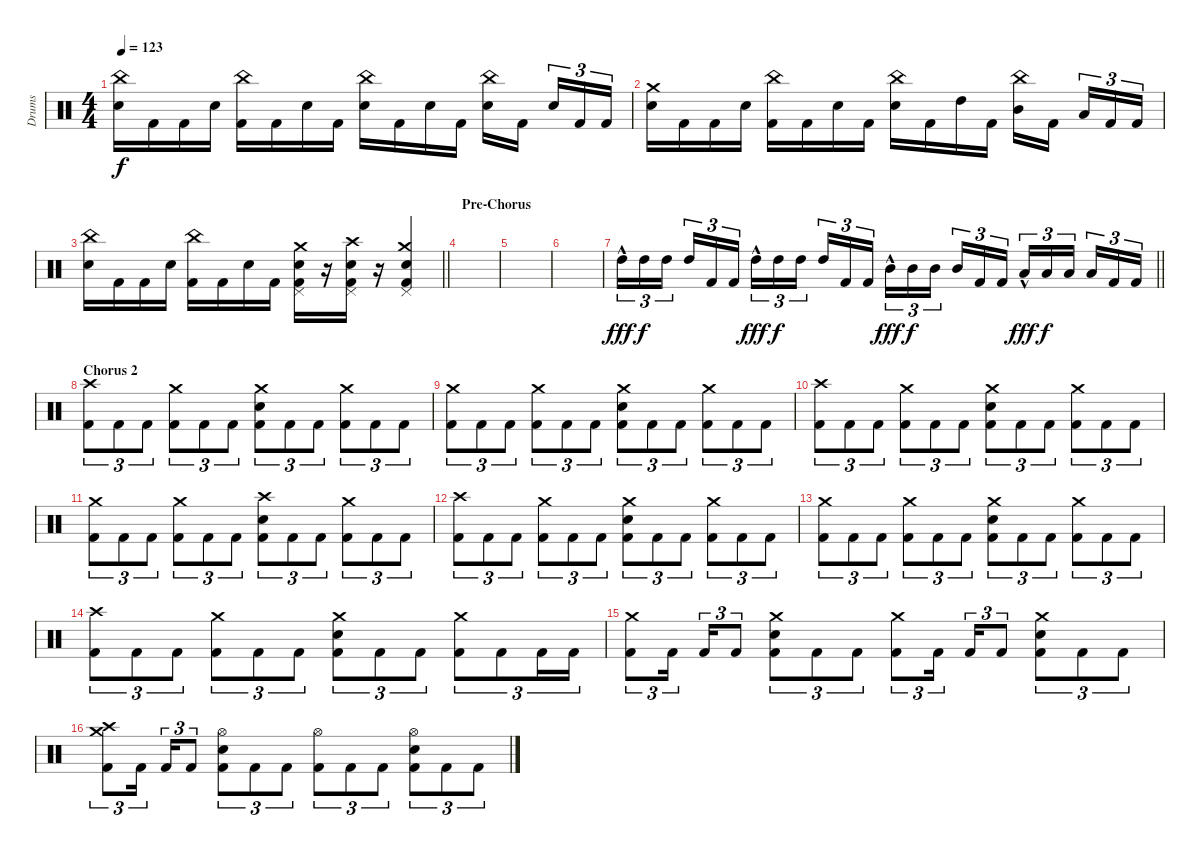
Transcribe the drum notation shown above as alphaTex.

\track ("Drums" "Drums") {instrument percussion}
\staff {score}
\articulation defaults
\ts (4 4)
\tempo 123
\clef neutral
\ks c
("China (hit)" "Snare (hit) 2").16{dy f} "Kick (hit) 2".16 "Kick (hit) 2".16 "Snare (hit) 2".16 ("China (hit)" "Kick (hit) 2").16 "Kick (hit) 2".16 "Snare (hit) 2".16 "Kick (hit) 2".16 ("China (hit)" "Snare (hit) 2").16 "Kick (hit) 2".16 "Snare (hit) 2".16 "Kick (hit) 2".16 ("China (hit)" "Snare (hit) 2").16 "Kick (hit) 2".16{beam splitsecondary} "Snare (hit) 2".16{tu (3 2)} "Kick (hit) 2".16{tu (3 2)} "Kick (hit) 2".16{tu (3 2)} |
("Crash medium (hit)" "Snare (hit) 2").16 "Kick (hit) 2".16 "Kick (hit) 2".16 "Snare (hit) 2".16 ("China (hit)" "Kick (hit) 2").16 "Kick (hit) 2".16 "Snare (hit) 2".16 "Kick (hit) 2".16 ("China (hit)" "Snare (hit) 2").16 "Kick (hit) 2".16 "High Tom (hit)".16 "Kick (hit) 2".16 ("China (hit)" "Mid Tom (hit)").16 "Kick (hit) 2".16{beam splitsecondary} "Low Tom (hit)".16{tu (3 2)} "Kick (hit) 2".16{tu (3 2)} "Kick (hit) 2".16{tu (3 2)} |
\barLineRight lightlight
("China (hit)" "Snare (hit) 2").16 "Kick (hit) 2".16 "Kick (hit) 2".16 "Snare (hit) 2".16 ("China (hit)" "Kick (hit) 2").16 "Kick (hit) 2".16 "Snare (hit) 2".16 "Kick (hit) 2".16 ("Crash medium (hit)" "Pedal Hi-Hat (hit)" "Snare (hit) 2" "Kick (hit) 2").16 r.16 ("Crash high (hit)" "Pedal Hi-Hat (hit)" "Snare (hit) 2" "Kick (hit) 2").16 r.16 ("Crash medium (hit)" "Pedal Hi-Hat (hit)" "Snare (hit) 2" "Kick (hit) 2").4 |
\section ("" "Pre-Chorus")
|
|
|
\barLineRight lightlight "High Tom (hit)"{hac}.16{tu (3 2) dy fff} "High Tom (hit)".16{tu (3 2) dy f} "High Tom (hit)".16{tu (3 2) beam splitsecondary} "High Tom (hit)".16{tu (3 2)} "Kick (hit) 2".16{tu (3 2)} "Kick (hit) 2".16{tu (3 2)} "High Tom (hit)"{hac}.16{tu (3 2) dy fff} "High Tom (hit)".16{tu (3 2) dy f} "High Tom (hit)".16{tu (3 2) beam splitsecondary} "High Tom (hit)".16{tu (3 2)} "Kick (hit) 2".16{tu (3 2)} "Kick (hit) 2".16{tu (3 2)} "Mid Tom (hit)"{hac}.16{tu (3 2) dy fff} "Mid Tom (hit)".16{tu (3 2) dy f} "Mid Tom (hit)".16{tu (3 2) beam splitsecondary} "Mid Tom (hit)".16{tu (3 2)} "Kick (hit) 2".16{tu (3 2)} "Kick (hit) 2".16{tu (3 2)} "Low Tom (hit)"{hac}.16{tu (3 2) dy fff} "Low Tom (hit)".16{tu (3 2) dy f} "Low Tom (hit)".16{tu (3 2) beam splitsecondary} "Low Tom (hit)".16{tu (3 2)} "Kick (hit) 2".16{tu (3 2)} "Kick (hit) 2".16{tu (3 2)}
|
\section ("" "Chorus 2")
("Crash high (hit)" "Kick (hit) 2").8{tu (3 2)} "Kick (hit) 2".8{tu (3 2)} "Kick (hit) 2".8{tu (3 2)} ("Crash medium (hit)" "Kick (hit) 2").8{tu (3 2)} "Kick (hit) 2".8{tu (3 2)} "Kick (hit) 2".8{tu (3 2)} ("Crash medium (hit)" "Snare (hit) 2" "Kick (hit) 2").8{tu (3 2)} "Kick (hit) 2".8{tu (3 2)} "Kick (hit) 2".8{tu (3 2)} ("Crash medium (hit)" "Kick (hit) 2").8{tu (3 2)} "Kick (hit) 2".8{tu (3 2)} "Kick (hit) 2".8{tu (3 2)} |
("Crash medium (hit)" "Kick (hit) 2").8{tu (3 2)} "Kick (hit) 2".8{tu (3 2)} "Kick (hit) 2".8{tu (3 2)} ("Crash medium (hit)" "Kick (hit) 2").8{tu (3 2)} "Kick (hit) 2".8{tu (3 2)} "Kick (hit) 2".8{tu (3 2)} ("Crash medium (hit)" "Snare (hit) 2" "Kick (hit) 2").8{tu (3 2)} "Kick (hit) 2".8{tu (3 2)} "Kick (hit) 2".8{tu (3 2)} ("Crash medium (hit)" "Kick (hit) 2").8{tu (3 2)} "Kick (hit) 2".8{tu (3 2)} "Kick (hit) 2".8{tu (3 2)} |
("Crash high (hit)" "Kick (hit) 2").8{tu (3 2)} "Kick (hit) 2".8{tu (3 2)} "Kick (hit) 2".8{tu (3 2)} ("Crash medium (hit)" "Kick (hit) 2").8{tu (3 2)} "Kick (hit) 2".8{tu (3 2)} "Kick (hit) 2".8{tu (3 2)} ("Crash medium (hit)" "Snare (hit) 2" "Kick (hit) 2").8{tu (3 2)} "Kick (hit) 2".8{tu (3 2)} "Kick (hit) 2".8{tu (3 2)} ("Crash medium (hit)" "Kick (hit) 2").8{tu (3 2)} "Kick (hit) 2".8{tu (3 2)} "Kick (hit) 2".8{tu (3 2)} |
("Crash medium (hit)" "Kick (hit) 2").8{tu (3 2)} "Kick (hit) 2".8{tu (3 2)} "Kick (hit) 2".8{tu (3 2)} ("Crash medium (hit)" "Kick (hit) 2").8{tu (3 2)} "Kick (hit) 2".8{tu (3 2)} "Kick (hit) 2".8{tu (3 2)} ("Crash high (hit)" "Snare (hit) 2" "Kick (hit) 2").8{tu (3 2)} "Kick (hit) 2".8{tu (3 2)} "Kick (hit) 2".8{tu (3 2)} ("Crash medium (hit)" "Kick (hit) 2").8{tu (3 2)} "Kick (hit) 2".8{tu (3 2)} "Kick (hit) 2".8{tu (3 2)} |
("Crash high (hit)" "Kick (hit) 2").8{tu (3 2)} "Kick (hit) 2".8{tu (3 2)} "Kick (hit) 2".8{tu (3 2)} ("Crash medium (hit)" "Kick (hit) 2").8{tu (3 2)} "Kick (hit) 2".8{tu (3 2)} "Kick (hit) 2".8{tu (3 2)} ("Crash medium (hit)" "Snare (hit) 2" "Kick (hit) 2").8{tu (3 2)} "Kick (hit) 2".8{tu (3 2)} "Kick (hit) 2".8{tu (3 2)} ("Crash medium (hit)" "Kick (hit) 2").8{tu (3 2)} "Kick (hit) 2".8{tu (3 2)} "Kick (hit) 2".8{tu (3 2)} |
("Crash medium (hit)" "Kick (hit) 2").8{tu (3 2)} "Kick (hit) 2".8{tu (3 2)} "Kick (hit) 2".8{tu (3 2)} ("Crash medium (hit)" "Kick (hit) 2").8{tu (3 2)} "Kick (hit) 2".8{tu (3 2)} "Kick (hit) 2".8{tu (3 2)} ("Crash medium (hit)" "Snare (hit) 2" "Kick (hit) 2").8{tu (3 2)} "Kick (hit) 2".8{tu (3 2)} "Kick (hit) 2".8{tu (3 2)} ("Crash medium (hit)" "Kick (hit) 2").8{tu (3 2)} "Kick (hit) 2".8{tu (3 2)} "Kick (hit) 2".8{tu (3 2)} |
("Crash high (hit)" "Kick (hit) 2").8{tu (3 2)} "Kick (hit) 2".8{tu (3 2)} "Kick (hit) 2".8{tu (3 2)} ("Crash medium (hit)" "Kick (hit) 2").8{tu (3 2)} "Kick (hit) 2".8{tu (3 2)} "Kick (hit) 2".8{tu (3 2)} ("Crash medium (hit)" "Snare (hit) 2" "Kick (hit) 2").8{tu (3 2)} "Kick (hit) 2".8{tu (3 2)} "Kick (hit) 2".8{tu (3 2)} ("Crash medium (hit)" "Kick (hit) 2").8{tu (3 2)} "Kick (hit) 2".8{tu (3 2)} "Kick (hit) 2".16{tu (3 2)} "Kick (hit) 2".16{tu (3 2)} |
("Crash medium (hit)" "Kick (hit) 2").8{tu (3 2)} "Kick (hit) 2".16{tu (3 2) beam splitsecondary} "Kick (hit) 2".16{tu (3 2)} "Kick (hit) 2".8{tu (3 2)} ("Crash medium (hit)" "Snare (hit) 2" "Kick (hit) 2").8{tu (3 2)} "Kick (hit) 2".8{tu (3 2)} "Kick (hit) 2".8{tu (3 2)} ("Crash medium (hit)" "Kick (hit) 2").8{tu (3 2)} "Kick (hit) 2".16{tu (3 2) beam splitsecondary} "Kick (hit) 2".16{tu (3 2)} "Kick (hit) 2".8{tu (3 2)} ("Crash medium (hit)" "Snare (hit) 2" "Kick (hit) 2").8{tu (3 2)} "Kick (hit) 2".8{tu (3 2)} "Kick (hit) 2".8{tu (3 2)} |
("Crash high (hit)" "Crash medium (hit)" "Kick (hit) 2").8{tu (3 2)} "Kick (hit) 2".16{tu (3 2) beam splitsecondary} "Kick (hit) 2".16{tu (3 2)} "Kick (hit) 2".8{tu (3 2)} ("Hi-Hat (open)" "Snare (hit) 2" "Kick (hit) 2").8{tu (3 2)} "Kick (hit) 2".8{tu (3 2)} "Kick (hit) 2".8{tu (3 2)} ("Hi-Hat (open)" "Kick (hit) 2").8{tu (3 2)} "Kick (hit) 2".8{tu (3 2)} "Kick (hit) 2".8{tu (3 2)} ("Hi-Hat (open)" "Snare (hit) 2" "Kick (hit) 2").8{tu (3 2)} "Kick (hit) 2".8{tu (3 2)} "Kick (hit) 2".8{tu (3 2)}
